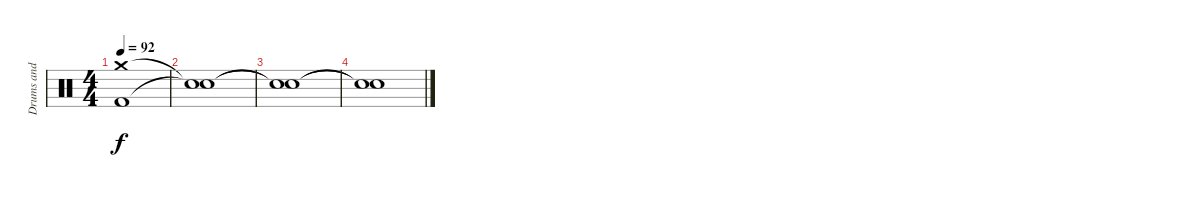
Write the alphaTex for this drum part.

\track ("Drums and Percussion" "Drums and ") {instrument percussion}
\staff {score}
\articulation defaults
\ts (4 4)
\tempo 92
\clef neutral
\ks c
("Crash medium (hit)" "Kick (hit) 2").1{dy f volume 0} |
("Snare (hit)"{t} "Snare (hit)"{t}).1 |
("Snare (hit)"{t} "Snare (hit)"{t}).1 |
("Snare (hit)"{t} "Snare (hit)"{t}).1
